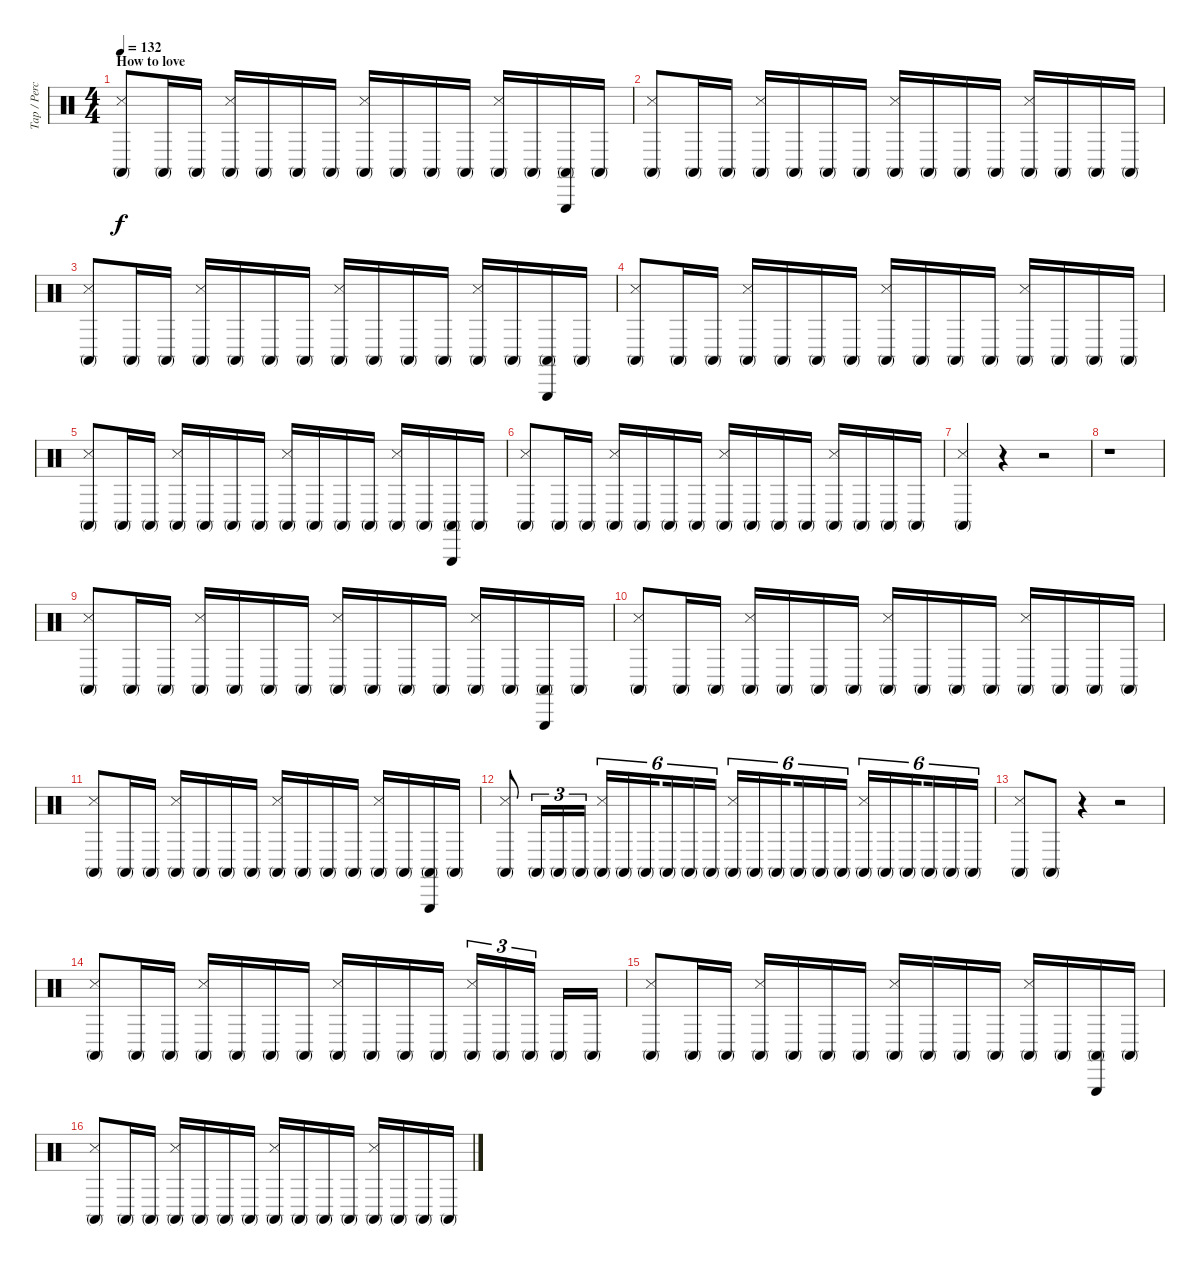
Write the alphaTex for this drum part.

\track ("Tap / Percussion" "Tap / Perc") {instrument percussion}
\staff {score}
\articulation defaults
\ts (4 4)
\section ("" "How to love")
\tempo 132
\clef neutral
\ks c
("Conga high (mute)" "Snare (side stick) 3").8{dy f} "Conga high (mute)".16 "Conga high (mute)".16 ("Conga high (mute)" "Snare (side stick) 3").16 "Conga high (mute)".16 "Conga high (mute)".16 "Conga high (mute)".16 ("Conga high (mute)" "Snare (side stick) 3").16 "Conga high (mute)".16 "Conga high (mute)".16 "Conga high (mute)".16 ("Conga high (mute)" "Snare (side stick) 3").16 "Conga high (mute)".16 ("Conga high (mute)" "Triangle (hit)").16 "Conga high (mute)".16 |
("Conga high (mute)" "Snare (side stick) 3").8 "Conga high (mute)".16 "Conga high (mute)".16 ("Conga high (mute)" "Snare (side stick) 3").16 "Conga high (mute)".16 "Conga high (mute)".16 "Conga high (mute)".16 ("Conga high (mute)" "Snare (side stick) 3").16 "Conga high (mute)".16 "Conga high (mute)".16 "Conga high (mute)".16 ("Conga high (mute)" "Snare (side stick) 3").16 "Conga high (mute)".16 "Conga high (mute)".16 "Conga high (mute)".16 |
("Conga high (mute)" "Snare (side stick) 3").8 "Conga high (mute)".16 "Conga high (mute)".16 ("Conga high (mute)" "Snare (side stick) 3").16 "Conga high (mute)".16 "Conga high (mute)".16 "Conga high (mute)".16 ("Conga high (mute)" "Snare (side stick) 3").16 "Conga high (mute)".16 "Conga high (mute)".16 "Conga high (mute)".16 ("Conga high (mute)" "Snare (side stick) 3").16 "Conga high (mute)".16 ("Conga high (mute)" "Triangle (hit)").16 "Conga high (mute)".16 |
("Conga high (mute)" "Snare (side stick) 3").8 "Conga high (mute)".16 "Conga high (mute)".16 ("Conga high (mute)" "Snare (side stick) 3").16 "Conga high (mute)".16 "Conga high (mute)".16 "Conga high (mute)".16 ("Conga high (mute)" "Snare (side stick) 3").16 "Conga high (mute)".16 "Conga high (mute)".16 "Conga high (mute)".16 ("Conga high (mute)" "Snare (side stick) 3").16 "Conga high (mute)".16 "Conga high (mute)".16 "Conga high (mute)".16 |
("Conga high (mute)" "Snare (side stick) 3").8 "Conga high (mute)".16 "Conga high (mute)".16 ("Conga high (mute)" "Snare (side stick) 3").16 "Conga high (mute)".16 "Conga high (mute)".16 "Conga high (mute)".16 ("Conga high (mute)" "Snare (side stick) 3").16 "Conga high (mute)".16 "Conga high (mute)".16 "Conga high (mute)".16 ("Conga high (mute)" "Snare (side stick) 3").16 "Conga high (mute)".16 ("Conga high (mute)" "Triangle (hit)").16 "Conga high (mute)".16 |
("Conga high (mute)" "Snare (side stick) 3").8 "Conga high (mute)".16 "Conga high (mute)".16 ("Conga high (mute)" "Snare (side stick) 3").16 "Conga high (mute)".16 "Conga high (mute)".16 "Conga high (mute)".16 ("Conga high (mute)" "Snare (side stick) 3").16 "Conga high (mute)".16 "Conga high (mute)".16 "Conga high (mute)".16 ("Conga high (mute)" "Snare (side stick) 3").16 "Conga high (mute)".16 "Conga high (mute)".16 "Conga high (mute)".16 |
("Conga high (mute)" "Snare (side stick) 3").4 r.4 r.2 |
r.1 |
("Conga high (mute)" "Snare (side stick) 3").8 "Conga high (mute)".16 "Conga high (mute)".16 ("Conga high (mute)" "Snare (side stick) 3").16 "Conga high (mute)".16 "Conga high (mute)".16 "Conga high (mute)".16 ("Conga high (mute)" "Snare (side stick) 3").16 "Conga high (mute)".16 "Conga high (mute)".16 "Conga high (mute)".16 ("Conga high (mute)" "Snare (side stick) 3").16 "Conga high (mute)".16 ("Conga high (mute)" "Triangle (hit)").16 "Conga high (mute)".16 |
("Conga high (mute)" "Snare (side stick) 3").8 "Conga high (mute)".16 "Conga high (mute)".16 ("Conga high (mute)" "Snare (side stick) 3").16 "Conga high (mute)".16 "Conga high (mute)".16 "Conga high (mute)".16 ("Conga high (mute)" "Snare (side stick) 3").16 "Conga high (mute)".16 "Conga high (mute)".16 "Conga high (mute)".16 ("Conga high (mute)" "Snare (side stick) 3").16 "Conga high (mute)".16 "Conga high (mute)".16 "Conga high (mute)".16 |
("Conga high (mute)" "Snare (side stick) 3").8 "Conga high (mute)".16 "Conga high (mute)".16 ("Conga high (mute)" "Snare (side stick) 3").16 "Conga high (mute)".16 "Conga high (mute)".16 "Conga high (mute)".16 ("Conga high (mute)" "Snare (side stick) 3").16 "Conga high (mute)".16 "Conga high (mute)".16 "Conga high (mute)".16 ("Conga high (mute)" "Snare (side stick) 3").16 "Conga high (mute)".16 ("Conga high (mute)" "Triangle (hit)").16 "Conga high (mute)".16 |
("Conga high (mute)" "Snare (side stick) 3").8 "Conga high (mute)".16{tu (3 2)} "Conga high (mute)".16{tu (3 2)} "Conga high (mute)".16{tu (3 2)} ("Conga high (mute)" "Snare (side stick) 3").16{tu (6 4)} "Conga high (mute)".16{tu (6 4)} "Conga high (mute)".16{tu (6 4) beam splitsecondary} "Conga high (mute)".16{tu (6 4)} "Conga high (mute)".16{tu (6 4)} "Conga high (mute)".16{tu (6 4)} ("Conga high (mute)" "Snare (side stick) 3").16{tu (6 4)} "Conga high (mute)".16{tu (6 4)} "Conga high (mute)".16{tu (6 4) beam splitsecondary} "Conga high (mute)".16{tu (6 4)} "Conga high (mute)".16{tu (6 4)} "Conga high (mute)".16{tu (6 4)} ("Conga high (mute)" "Snare (side stick) 3").16{tu (6 4)} "Conga high (mute)".16{tu (6 4)} "Conga high (mute)".16{tu (6 4) beam splitsecondary} "Conga high (mute)".16{tu (6 4)} "Conga high (mute)".16{tu (6 4)} "Conga high (mute)".16{tu (6 4)} |
("Conga high (mute)" "Snare (side stick) 3").8 "Conga high (mute)".8 r.4 r.2 |
("Conga high (mute)" "Snare (side stick) 3").8 "Conga high (mute)".16 "Conga high (mute)".16 ("Conga high (mute)" "Snare (side stick) 3").16 "Conga high (mute)".16 "Conga high (mute)".16 "Conga high (mute)".16 ("Conga high (mute)" "Snare (side stick) 3").16 "Conga high (mute)".16 "Conga high (mute)".16 "Conga high (mute)".16 ("Conga high (mute)" "Snare (side stick) 3").16{tu (3 2)} "Conga high (mute)".16{tu (3 2)} "Conga high (mute)".16{tu (3 2) beam splitsecondary} "Conga high (mute)".16 "Conga high (mute)".16 |
("Conga high (mute)" "Snare (side stick) 3").8 "Conga high (mute)".16 "Conga high (mute)".16 ("Conga high (mute)" "Snare (side stick) 3").16 "Conga high (mute)".16 "Conga high (mute)".16 "Conga high (mute)".16 ("Conga high (mute)" "Snare (side stick) 3").16 "Conga high (mute)".16 "Conga high (mute)".16 "Conga high (mute)".16 ("Conga high (mute)" "Snare (side stick) 3").16 "Conga high (mute)".16 ("Conga high (mute)" "Triangle (hit)").16 "Conga high (mute)".16 |
("Conga high (mute)" "Snare (side stick) 3").8 "Conga high (mute)".16 "Conga high (mute)".16 ("Conga high (mute)" "Snare (side stick) 3").16 "Conga high (mute)".16 "Conga high (mute)".16 "Conga high (mute)".16 ("Conga high (mute)" "Snare (side stick) 3").16 "Conga high (mute)".16 "Conga high (mute)".16 "Conga high (mute)".16 ("Conga high (mute)" "Snare (side stick) 3").16 "Conga high (mute)".16 "Conga high (mute)".16 "Conga high (mute)".16
